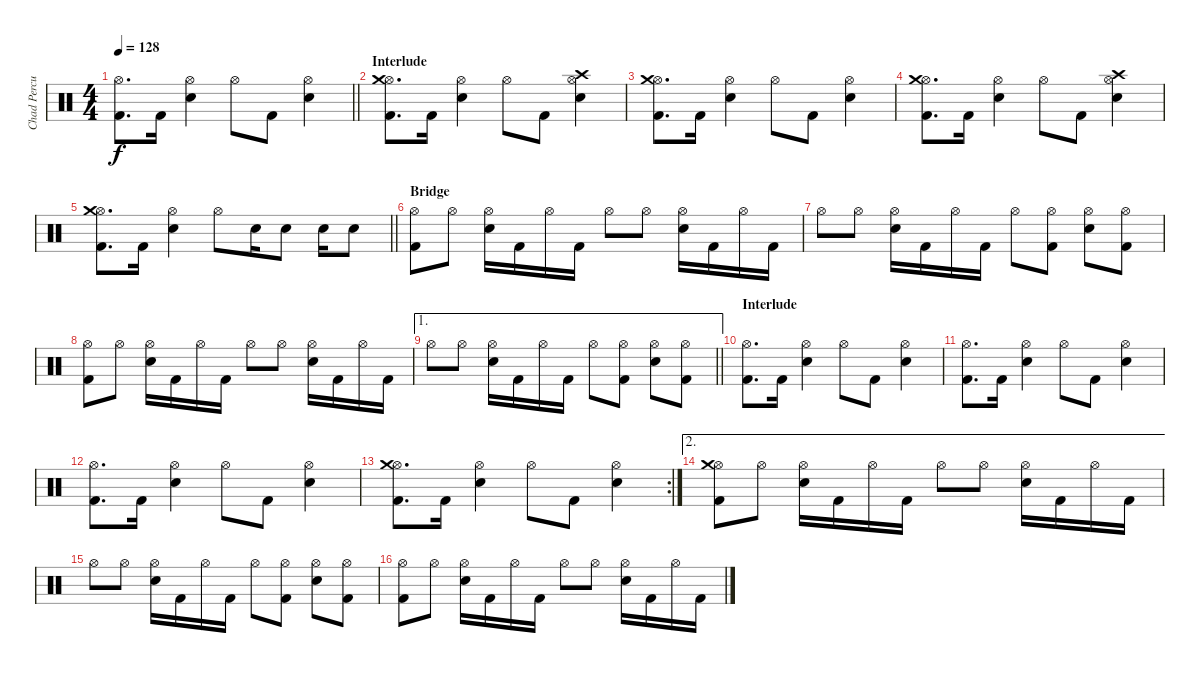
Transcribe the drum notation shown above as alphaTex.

\track ("Chad Percuson (11)" "Chad Percu") {instrument percussion}
\staff {score}
\articulation defaults
\ts (4 4)
\tempo 128
\clef neutral
\barLineRight lightlight
\ks c
("Hi-Hat (open)" "Kick (hit) 2").8{d dy f} "Kick (hit) 2".16 ("Hi-Hat (open)" "Electric Snare (hit)").4 "Hi-Hat (open)".8 "Kick (hit) 2".8 ("Hi-Hat (open)" "Electric Snare (hit)").4 |
\section ("" "Interlude")
("Hi-Hat (open)" "Kick (hit) 2" "Crash medium (hit)").8{d} "Kick (hit) 2".16 ("Hi-Hat (open)" "Electric Snare (hit)").4 "Hi-Hat (open)".8 "Kick (hit) 2".8 ("Hi-Hat (open)" "Electric Snare (hit)" "Crash high (hit)").4 |
("Hi-Hat (open)" "Kick (hit) 2" "Crash medium (hit)").8{d} "Kick (hit) 2".16 ("Hi-Hat (open)" "Electric Snare (hit)").4 "Hi-Hat (open)".8 "Kick (hit) 2".8 ("Hi-Hat (open)" "Electric Snare (hit)").4 |
("Hi-Hat (open)" "Kick (hit) 2" "Crash medium (hit)").8{d} "Kick (hit) 2".16 ("Hi-Hat (open)" "Electric Snare (hit)").4 "Hi-Hat (open)".8 "Kick (hit) 2".8 ("Hi-Hat (open)" "Electric Snare (hit)" "Crash high (hit)").4 |
\barLineRight lightlight
("Hi-Hat (open)" "Kick (hit) 2" "Crash medium (hit)").8{d} "Kick (hit) 2".16 ("Hi-Hat (open)" "Electric Snare (hit)").4 "Hi-Hat (open)".8 "Electric Snare (hit)".16 "Electric Snare (hit)".8 "Electric Snare (hit)".16 "Electric Snare (hit)".8 |
\section ("" "Bridge")
("Hi-Hat (open)" "Kick (hit) 2").8 "Hi-Hat (open)".8 ("Hi-Hat (open)" "Electric Snare (hit)").16 "Kick (hit) 2".16 "Hi-Hat (open)".16 "Kick (hit) 2".16 "Hi-Hat (open)".8 "Hi-Hat (open)".8 ("Hi-Hat (open)" "Electric Snare (hit)").16 "Kick (hit) 2".16 "Hi-Hat (open)".16 "Kick (hit) 2".16 |
"Hi-Hat (open)".8 "Hi-Hat (open)".8 ("Hi-Hat (open)" "Electric Snare (hit)").16 "Kick (hit) 2".16 "Hi-Hat (open)".16 "Kick (hit) 2".16 "Hi-Hat (open)".8 ("Hi-Hat (open)" "Kick (hit) 2").8 ("Hi-Hat (open)" "Electric Snare (hit)").8 ("Hi-Hat (open)" "Kick (hit) 2").8 |
("Hi-Hat (open)" "Kick (hit) 2").8 "Hi-Hat (open)".8 ("Hi-Hat (open)" "Electric Snare (hit)").16 "Kick (hit) 2".16 "Hi-Hat (open)".16 "Kick (hit) 2".16 "Hi-Hat (open)".8 "Hi-Hat (open)".8 ("Hi-Hat (open)" "Electric Snare (hit)").16 "Kick (hit) 2".16 "Hi-Hat (open)".16 "Kick (hit) 2".16 |
\ae 1
\barLineRight lightlight "Hi-Hat (open)".8 "Hi-Hat (open)".8
("Hi-Hat (open)" "Electric Snare (hit)").16 "Kick (hit) 2".16 "Hi-Hat (open)".16 "Kick (hit) 2".16 "Hi-Hat (open)".8 ("Hi-Hat (open)" "Kick (hit) 2").8 ("Hi-Hat (open)" "Electric Snare (hit)").8 ("Hi-Hat (open)" "Kick (hit) 2").8 |
\section ("" "Interlude")
("Hi-Hat (open)" "Kick (hit) 2").8{d} "Kick (hit) 2".16 ("Hi-Hat (open)" "Electric Snare (hit)").4 "Hi-Hat (open)".8 "Kick (hit) 2".8 ("Hi-Hat (open)" "Electric Snare (hit)").4 |
("Hi-Hat (open)" "Kick (hit) 2").8{d} "Kick (hit) 2".16 ("Hi-Hat (open)" "Electric Snare (hit)").4 "Hi-Hat (open)".8 "Kick (hit) 2".8 ("Hi-Hat (open)" "Electric Snare (hit)").4 |
("Hi-Hat (open)" "Kick (hit) 2").8{d} "Kick (hit) 2".16 ("Hi-Hat (open)" "Electric Snare (hit)").4 "Hi-Hat (open)".8 "Kick (hit) 2".8 ("Hi-Hat (open)" "Electric Snare (hit)").4 |
\rc 2
("Hi-Hat (open)" "Kick (hit) 2" "Crash medium (hit)").8{d} "Kick (hit) 2".16 ("Hi-Hat (open)" "Electric Snare (hit)").4 "Hi-Hat (open)".8 "Kick (hit) 2".8 ("Hi-Hat (open)" "Electric Snare (hit)").4 |
\ae 2
("Hi-Hat (open)" "Kick (hit) 2" "Crash medium (hit)").8 "Hi-Hat (open)".8 ("Hi-Hat (open)" "Electric Snare (hit)").16 "Kick (hit) 2".16 "Hi-Hat (open)".16 "Kick (hit) 2".16 "Hi-Hat (open)".8 "Hi-Hat (open)".8 ("Hi-Hat (open)" "Electric Snare (hit)").16 "Kick (hit) 2".16 "Hi-Hat (open)".16 "Kick (hit) 2".16 |
"Hi-Hat (open)".8 "Hi-Hat (open)".8 ("Hi-Hat (open)" "Electric Snare (hit)").16 "Kick (hit) 2".16 "Hi-Hat (open)".16 "Kick (hit) 2".16 "Hi-Hat (open)".8 ("Hi-Hat (open)" "Kick (hit) 2").8 ("Hi-Hat (open)" "Electric Snare (hit)").8 ("Hi-Hat (open)" "Kick (hit) 2").8 |
("Hi-Hat (open)" "Kick (hit) 2").8 "Hi-Hat (open)".8 ("Hi-Hat (open)" "Electric Snare (hit)").16 "Kick (hit) 2".16 "Hi-Hat (open)".16 "Kick (hit) 2".16 "Hi-Hat (open)".8 "Hi-Hat (open)".8 ("Hi-Hat (open)" "Electric Snare (hit)").16 "Kick (hit) 2".16 "Hi-Hat (open)".16 "Kick (hit) 2".16
